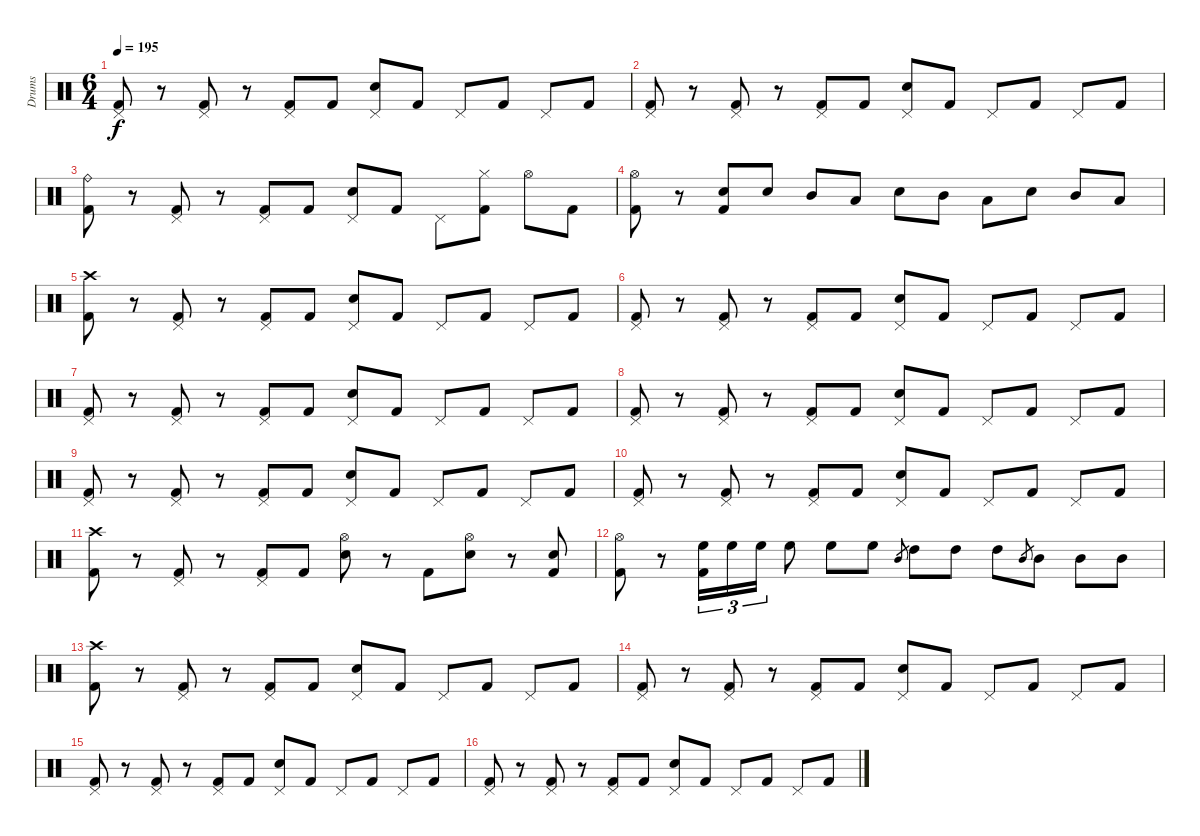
\track ("Drums" "Drums") {instrument percussion}
\staff {score}
\articulation defaults
\ts (6 4)
\tempo 195
\clef neutral
\ks c
("Pedal Hi-Hat (hit)" "Kick (hit) 2").8{dy f} r.8 ("Pedal Hi-Hat (hit)" "Kick (hit) 2").8 r.8 ("Pedal Hi-Hat (hit)" "Kick (hit) 2").8 "Kick (hit) 2".8 ("Pedal Hi-Hat (hit)" "Electric Snare (hit)").8 "Kick (hit) 2".8 "Pedal Hi-Hat (hit)".8 "Kick (hit) 2".8 "Pedal Hi-Hat (hit)".8 "Kick (hit) 2".8 |
("Pedal Hi-Hat (hit)" "Kick (hit) 2").8 r.8 ("Pedal Hi-Hat (hit)" "Kick (hit) 2").8 r.8 ("Pedal Hi-Hat (hit)" "Kick (hit) 2").8 "Kick (hit) 2".8 ("Pedal Hi-Hat (hit)" "Electric Snare (hit)").8 "Kick (hit) 2".8 "Pedal Hi-Hat (hit)".8 "Kick (hit) 2".8 "Pedal Hi-Hat (hit)".8 "Kick (hit) 2".8 |
("Ride (bell)" "Kick (hit) 2").8 r.8 ("Pedal Hi-Hat (hit)" "Kick (hit) 2").8 r.8 ("Pedal Hi-Hat (hit)" "Kick (hit) 2").8 "Kick (hit) 2".8 ("Pedal Hi-Hat (hit)" "Electric Snare (hit)").8 "Kick (hit) 2".8 "Pedal Hi-Hat (hit)".8 ("Hi-Hat (closed)" "Kick (hit) 2").8 "Hi-Hat (open)".8 "Kick (hit) 2".8 |
("Hi-Hat (open)" "Kick (hit) 2").8 r.8 ("Electric Snare (hit)" "Kick (hit) 2").8 "Electric Snare (hit)".8 "Mid Tom (hit)".8 "Low Tom (hit)".8 "Electric Snare (hit)".8 "Mid Tom (hit)".8 "Low Tom (hit)".8 "Electric Snare (hit)".8 "Mid Tom (hit)".8 "Low Tom (hit)".8 |
("Crash high (hit)" "Kick (hit) 2").8 r.8 ("Pedal Hi-Hat (hit)" "Kick (hit) 2").8 r.8 ("Pedal Hi-Hat (hit)" "Kick (hit) 2").8 "Kick (hit) 2".8 ("Pedal Hi-Hat (hit)" "Electric Snare (hit)").8 "Kick (hit) 2".8 "Pedal Hi-Hat (hit)".8 "Kick (hit) 2".8 "Pedal Hi-Hat (hit)".8 "Kick (hit) 2".8 |
("Pedal Hi-Hat (hit)" "Kick (hit) 2").8 r.8 ("Pedal Hi-Hat (hit)" "Kick (hit) 2").8 r.8 ("Pedal Hi-Hat (hit)" "Kick (hit) 2").8 "Kick (hit) 2".8 ("Pedal Hi-Hat (hit)" "Electric Snare (hit)").8 "Kick (hit) 2".8 "Pedal Hi-Hat (hit)".8 "Kick (hit) 2".8 "Pedal Hi-Hat (hit)".8 "Kick (hit) 2".8 |
("Pedal Hi-Hat (hit)" "Kick (hit) 2").8 r.8 ("Pedal Hi-Hat (hit)" "Kick (hit) 2").8 r.8 ("Pedal Hi-Hat (hit)" "Kick (hit) 2").8 "Kick (hit) 2".8 ("Pedal Hi-Hat (hit)" "Electric Snare (hit)").8 "Kick (hit) 2".8 "Pedal Hi-Hat (hit)".8 "Kick (hit) 2".8 "Pedal Hi-Hat (hit)".8 "Kick (hit) 2".8 |
("Pedal Hi-Hat (hit)" "Kick (hit) 2").8 r.8 ("Pedal Hi-Hat (hit)" "Kick (hit) 2").8 r.8 ("Pedal Hi-Hat (hit)" "Kick (hit) 2").8 "Kick (hit) 2".8 ("Pedal Hi-Hat (hit)" "Electric Snare (hit)").8 "Kick (hit) 2".8 "Pedal Hi-Hat (hit)".8 "Kick (hit) 2".8 "Pedal Hi-Hat (hit)".8 "Kick (hit) 2".8 |
("Pedal Hi-Hat (hit)" "Kick (hit) 2").8 r.8 ("Pedal Hi-Hat (hit)" "Kick (hit) 2").8 r.8 ("Pedal Hi-Hat (hit)" "Kick (hit) 2").8 "Kick (hit) 2".8 ("Pedal Hi-Hat (hit)" "Electric Snare (hit)").8 "Kick (hit) 2".8 "Pedal Hi-Hat (hit)".8 "Kick (hit) 2".8 "Pedal Hi-Hat (hit)".8 "Kick (hit) 2".8 |
("Pedal Hi-Hat (hit)" "Kick (hit) 2").8 r.8 ("Pedal Hi-Hat (hit)" "Kick (hit) 2").8 r.8 ("Pedal Hi-Hat (hit)" "Kick (hit) 2").8 "Kick (hit) 2".8 ("Pedal Hi-Hat (hit)" "Electric Snare (hit)").8 "Kick (hit) 2".8 "Pedal Hi-Hat (hit)".8 "Kick (hit) 2".8 "Pedal Hi-Hat (hit)".8 "Kick (hit) 2".8 |
("Crash high (hit)" "Kick (hit) 2").8 r.8 ("Pedal Hi-Hat (hit)" "Kick (hit) 2").8 r.8 ("Pedal Hi-Hat (hit)" "Kick (hit) 2").8 "Kick (hit) 2".8 ("Hi-Hat (open)" "Electric Snare (hit)").8 r.8 "Kick (hit) 2".8 ("Hi-Hat (open)" "Electric Snare (hit)").8 r.8 ("Electric Snare (hit)" "Kick (hit) 2").8 |
("Hi-Hat (open)" "Kick (hit) 2").8 r.8 ("High Floor Tom (hit)" "Kick (hit) 2").16{tu (3 2)} "High Floor Tom (hit)".16{tu (3 2)} "High Floor Tom (hit)".16{tu (3 2)} "High Floor Tom (hit)".8 "High Floor Tom (hit)".8 "High Floor Tom (hit)".8 "Mid Tom (hit)".8{gr} "High Tom (hit)".8 "High Tom (hit)".8 "High Tom (hit)".8 "Mid Tom (hit)".8{gr} "Mid Tom (hit)".8 "Mid Tom (hit)".8 "Mid Tom (hit)".8 |
("Crash high (hit)" "Kick (hit) 2").8 r.8 ("Pedal Hi-Hat (hit)" "Kick (hit) 2").8 r.8 ("Pedal Hi-Hat (hit)" "Kick (hit) 2").8 "Kick (hit) 2".8 ("Pedal Hi-Hat (hit)" "Electric Snare (hit)").8 "Kick (hit) 2".8 "Pedal Hi-Hat (hit)".8 "Kick (hit) 2".8 "Pedal Hi-Hat (hit)".8 "Kick (hit) 2".8 |
("Pedal Hi-Hat (hit)" "Kick (hit) 2").8 r.8 ("Pedal Hi-Hat (hit)" "Kick (hit) 2").8 r.8 ("Pedal Hi-Hat (hit)" "Kick (hit) 2").8 "Kick (hit) 2".8 ("Pedal Hi-Hat (hit)" "Electric Snare (hit)").8 "Kick (hit) 2".8 "Pedal Hi-Hat (hit)".8 "Kick (hit) 2".8 "Pedal Hi-Hat (hit)".8 "Kick (hit) 2".8 |
("Pedal Hi-Hat (hit)" "Kick (hit) 2").8 r.8 ("Pedal Hi-Hat (hit)" "Kick (hit) 2").8 r.8 ("Pedal Hi-Hat (hit)" "Kick (hit) 2").8 "Kick (hit) 2".8 ("Pedal Hi-Hat (hit)" "Electric Snare (hit)").8 "Kick (hit) 2".8 "Pedal Hi-Hat (hit)".8 "Kick (hit) 2".8 "Pedal Hi-Hat (hit)".8 "Kick (hit) 2".8 |
("Pedal Hi-Hat (hit)" "Kick (hit) 2").8 r.8 ("Pedal Hi-Hat (hit)" "Kick (hit) 2").8 r.8 ("Pedal Hi-Hat (hit)" "Kick (hit) 2").8 "Kick (hit) 2".8 ("Pedal Hi-Hat (hit)" "Electric Snare (hit)").8 "Kick (hit) 2".8 "Pedal Hi-Hat (hit)".8 "Kick (hit) 2".8 "Pedal Hi-Hat (hit)".8 "Kick (hit) 2".8
